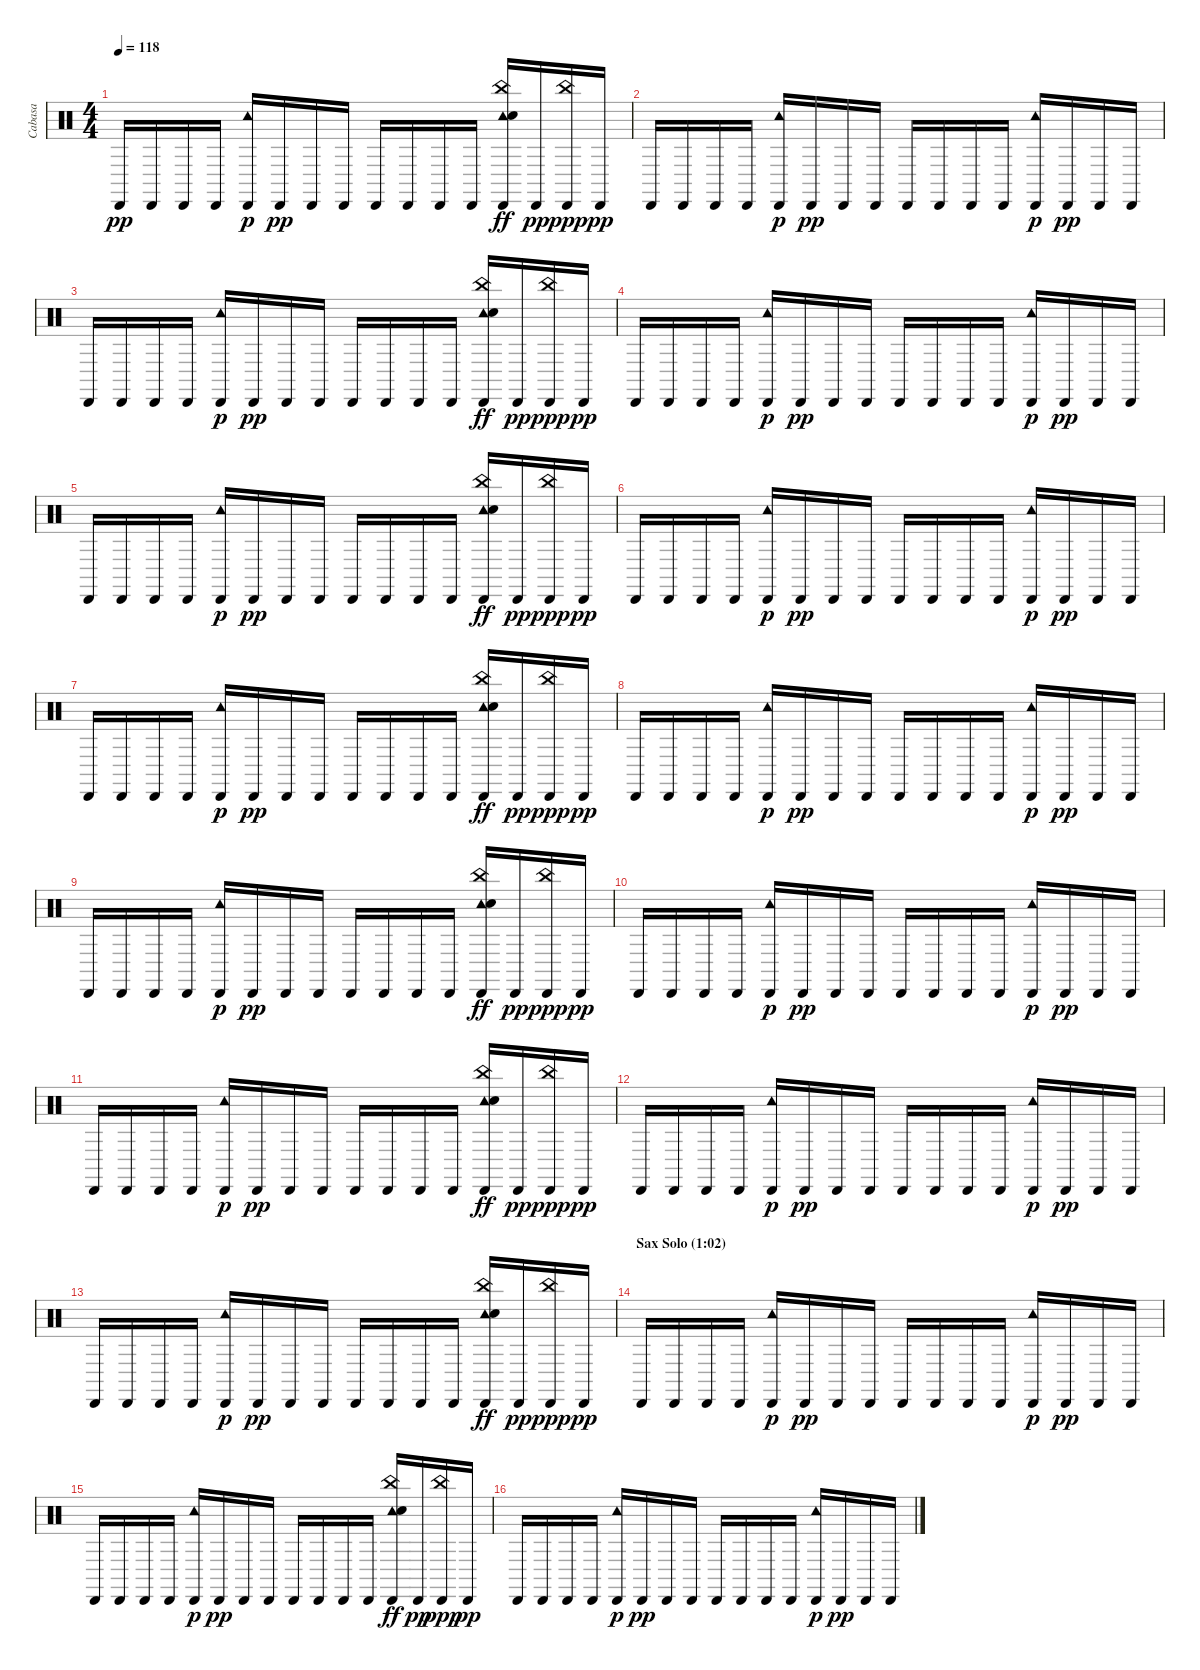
\track ("Cabasa" "Cabasa") {instrument percussion}
\staff {score}
\articulation defaults
\ts (4 4)
\tempo 118
\clef neutral
\ks c "Cabasa (hit)".16{dy pp} "Cabasa (hit)".16 "Cabasa (hit)".16 "Cabasa (hit)".16
("Cabasa (hit)" "Tambourine (hit)").16{dy p} "Cabasa (hit)".16{dy pp} "Cabasa (hit)".16 "Cabasa (hit)".16 "Cabasa (hit)".16 "Cabasa (hit)".16 "Cabasa (hit)".16 "Cabasa (hit)".16 ("Cabasa (hit)" "Tambourine (hit)" "Hand Clap (hit)" "China (hit)").16{dy ff} "Cabasa (hit)".16{dy pp} ("Cabasa (hit)" "China (hit)").16{dy ppp} "Cabasa (hit)".16{dy pp} |
"Cabasa (hit)".16 "Cabasa (hit)".16 "Cabasa (hit)".16 "Cabasa (hit)".16 ("Cabasa (hit)" "Tambourine (hit)").16{dy p} "Cabasa (hit)".16{dy pp} "Cabasa (hit)".16 "Cabasa (hit)".16 "Cabasa (hit)".16 "Cabasa (hit)".16 "Cabasa (hit)".16 "Cabasa (hit)".16 ("Cabasa (hit)" "Tambourine (hit)").16{dy p} "Cabasa (hit)".16{dy pp} "Cabasa (hit)".16 "Cabasa (hit)".16 |
"Cabasa (hit)".16 "Cabasa (hit)".16 "Cabasa (hit)".16 "Cabasa (hit)".16 ("Cabasa (hit)" "Tambourine (hit)").16{dy p} "Cabasa (hit)".16{dy pp} "Cabasa (hit)".16 "Cabasa (hit)".16 "Cabasa (hit)".16 "Cabasa (hit)".16 "Cabasa (hit)".16 "Cabasa (hit)".16 ("Cabasa (hit)" "Tambourine (hit)" "Hand Clap (hit)" "China (hit)").16{dy ff} "Cabasa (hit)".16{dy pp} ("Cabasa (hit)" "China (hit)").16{dy ppp} "Cabasa (hit)".16{dy pp} |
"Cabasa (hit)".16 "Cabasa (hit)".16 "Cabasa (hit)".16 "Cabasa (hit)".16 ("Cabasa (hit)" "Tambourine (hit)").16{dy p} "Cabasa (hit)".16{dy pp} "Cabasa (hit)".16 "Cabasa (hit)".16 "Cabasa (hit)".16 "Cabasa (hit)".16 "Cabasa (hit)".16 "Cabasa (hit)".16 ("Cabasa (hit)" "Tambourine (hit)").16{dy p} "Cabasa (hit)".16{dy pp} "Cabasa (hit)".16 "Cabasa (hit)".16 |
"Cabasa (hit)".16 "Cabasa (hit)".16 "Cabasa (hit)".16 "Cabasa (hit)".16 ("Cabasa (hit)" "Tambourine (hit)").16{dy p} "Cabasa (hit)".16{dy pp} "Cabasa (hit)".16 "Cabasa (hit)".16 "Cabasa (hit)".16 "Cabasa (hit)".16 "Cabasa (hit)".16 "Cabasa (hit)".16 ("Cabasa (hit)" "Tambourine (hit)" "Hand Clap (hit)" "China (hit)").16{dy ff} "Cabasa (hit)".16{dy pp} ("Cabasa (hit)" "China (hit)").16{dy ppp} "Cabasa (hit)".16{dy pp} |
"Cabasa (hit)".16 "Cabasa (hit)".16 "Cabasa (hit)".16 "Cabasa (hit)".16 ("Cabasa (hit)" "Tambourine (hit)").16{dy p} "Cabasa (hit)".16{dy pp} "Cabasa (hit)".16 "Cabasa (hit)".16 "Cabasa (hit)".16 "Cabasa (hit)".16 "Cabasa (hit)".16 "Cabasa (hit)".16 ("Cabasa (hit)" "Tambourine (hit)").16{dy p} "Cabasa (hit)".16{dy pp} "Cabasa (hit)".16 "Cabasa (hit)".16 |
"Cabasa (hit)".16 "Cabasa (hit)".16 "Cabasa (hit)".16 "Cabasa (hit)".16 ("Cabasa (hit)" "Tambourine (hit)").16{dy p} "Cabasa (hit)".16{dy pp} "Cabasa (hit)".16 "Cabasa (hit)".16 "Cabasa (hit)".16 "Cabasa (hit)".16 "Cabasa (hit)".16 "Cabasa (hit)".16 ("Cabasa (hit)" "Tambourine (hit)" "Hand Clap (hit)" "China (hit)").16{dy ff} "Cabasa (hit)".16{dy pp} ("Cabasa (hit)" "China (hit)").16{dy ppp} "Cabasa (hit)".16{dy pp} |
"Cabasa (hit)".16 "Cabasa (hit)".16 "Cabasa (hit)".16 "Cabasa (hit)".16 ("Cabasa (hit)" "Tambourine (hit)").16{dy p} "Cabasa (hit)".16{dy pp} "Cabasa (hit)".16 "Cabasa (hit)".16 "Cabasa (hit)".16 "Cabasa (hit)".16 "Cabasa (hit)".16 "Cabasa (hit)".16 ("Cabasa (hit)" "Tambourine (hit)").16{dy p} "Cabasa (hit)".16{dy pp} "Cabasa (hit)".16 "Cabasa (hit)".16 |
"Cabasa (hit)".16 "Cabasa (hit)".16 "Cabasa (hit)".16 "Cabasa (hit)".16 ("Cabasa (hit)" "Tambourine (hit)").16{dy p} "Cabasa (hit)".16{dy pp} "Cabasa (hit)".16 "Cabasa (hit)".16 "Cabasa (hit)".16 "Cabasa (hit)".16 "Cabasa (hit)".16 "Cabasa (hit)".16 ("Cabasa (hit)" "Tambourine (hit)" "Hand Clap (hit)" "China (hit)").16{dy ff} "Cabasa (hit)".16{dy pp} ("Cabasa (hit)" "China (hit)").16{dy ppp} "Cabasa (hit)".16{dy pp} |
"Cabasa (hit)".16 "Cabasa (hit)".16 "Cabasa (hit)".16 "Cabasa (hit)".16 ("Cabasa (hit)" "Tambourine (hit)").16{dy p} "Cabasa (hit)".16{dy pp} "Cabasa (hit)".16 "Cabasa (hit)".16 "Cabasa (hit)".16 "Cabasa (hit)".16 "Cabasa (hit)".16 "Cabasa (hit)".16 ("Cabasa (hit)" "Tambourine (hit)").16{dy p} "Cabasa (hit)".16{dy pp} "Cabasa (hit)".16 "Cabasa (hit)".16 |
"Cabasa (hit)".16 "Cabasa (hit)".16 "Cabasa (hit)".16 "Cabasa (hit)".16 ("Cabasa (hit)" "Tambourine (hit)").16{dy p} "Cabasa (hit)".16{dy pp} "Cabasa (hit)".16 "Cabasa (hit)".16 "Cabasa (hit)".16 "Cabasa (hit)".16 "Cabasa (hit)".16 "Cabasa (hit)".16 ("Cabasa (hit)" "Tambourine (hit)" "Hand Clap (hit)" "China (hit)").16{dy ff} "Cabasa (hit)".16{dy pp} ("Cabasa (hit)" "China (hit)").16{dy ppp} "Cabasa (hit)".16{dy pp} |
"Cabasa (hit)".16 "Cabasa (hit)".16 "Cabasa (hit)".16 "Cabasa (hit)".16 ("Cabasa (hit)" "Tambourine (hit)").16{dy p} "Cabasa (hit)".16{dy pp} "Cabasa (hit)".16 "Cabasa (hit)".16 "Cabasa (hit)".16 "Cabasa (hit)".16 "Cabasa (hit)".16 "Cabasa (hit)".16 ("Cabasa (hit)" "Tambourine (hit)").16{dy p} "Cabasa (hit)".16{dy pp} "Cabasa (hit)".16 "Cabasa (hit)".16 |
"Cabasa (hit)".16 "Cabasa (hit)".16 "Cabasa (hit)".16 "Cabasa (hit)".16 ("Cabasa (hit)" "Tambourine (hit)").16{dy p} "Cabasa (hit)".16{dy pp} "Cabasa (hit)".16 "Cabasa (hit)".16 "Cabasa (hit)".16 "Cabasa (hit)".16 "Cabasa (hit)".16 "Cabasa (hit)".16 ("Cabasa (hit)" "Tambourine (hit)" "Hand Clap (hit)" "China (hit)").16{dy ff} "Cabasa (hit)".16{dy pp} ("Cabasa (hit)" "China (hit)").16{dy ppp} "Cabasa (hit)".16{dy pp} |
\section ("" "Sax Solo (1:02)")
"Cabasa (hit)".16 "Cabasa (hit)".16 "Cabasa (hit)".16 "Cabasa (hit)".16 ("Cabasa (hit)" "Tambourine (hit)").16{dy p} "Cabasa (hit)".16{dy pp} "Cabasa (hit)".16 "Cabasa (hit)".16 "Cabasa (hit)".16 "Cabasa (hit)".16 "Cabasa (hit)".16 "Cabasa (hit)".16 ("Cabasa (hit)" "Tambourine (hit)").16{dy p} "Cabasa (hit)".16{dy pp} "Cabasa (hit)".16 "Cabasa (hit)".16 |
"Cabasa (hit)".16 "Cabasa (hit)".16 "Cabasa (hit)".16 "Cabasa (hit)".16 ("Cabasa (hit)" "Tambourine (hit)").16{dy p} "Cabasa (hit)".16{dy pp} "Cabasa (hit)".16 "Cabasa (hit)".16 "Cabasa (hit)".16 "Cabasa (hit)".16 "Cabasa (hit)".16 "Cabasa (hit)".16 ("Cabasa (hit)" "Tambourine (hit)" "Hand Clap (hit)" "China (hit)").16{dy ff} "Cabasa (hit)".16{dy pp} ("Cabasa (hit)" "China (hit)").16{dy ppp} "Cabasa (hit)".16{dy pp} |
"Cabasa (hit)".16 "Cabasa (hit)".16 "Cabasa (hit)".16 "Cabasa (hit)".16 ("Cabasa (hit)" "Tambourine (hit)").16{dy p} "Cabasa (hit)".16{dy pp} "Cabasa (hit)".16 "Cabasa (hit)".16 "Cabasa (hit)".16 "Cabasa (hit)".16 "Cabasa (hit)".16 "Cabasa (hit)".16 ("Cabasa (hit)" "Tambourine (hit)").16{dy p} "Cabasa (hit)".16{dy pp} "Cabasa (hit)".16 "Cabasa (hit)".16
